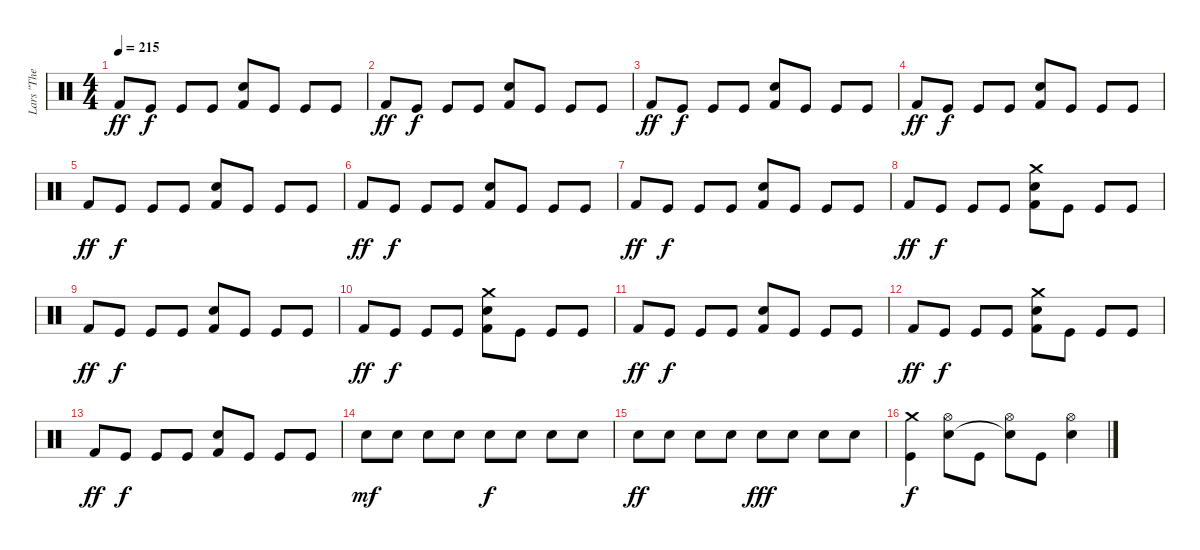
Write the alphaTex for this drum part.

\track ("Lars \"The Antichrist\" Ulrich" "Lars \"The ") {instrument percussion}
\staff {score}
\articulation defaults
\ts (4 4)
\tempo 215
\clef neutral
\ks c "Kick (hit) 2".8{dy ff} "Kick (hit)".8{dy f} "Kick (hit)".8 "Kick (hit)".8
("Electric Snare (hit)" "Kick (hit) 2").8 "Kick (hit)".8 "Kick (hit)".8 "Kick (hit)".8 |
"Kick (hit) 2".8{dy ff} "Kick (hit)".8{dy f} "Kick (hit)".8 "Kick (hit)".8 ("Electric Snare (hit)" "Kick (hit) 2").8 "Kick (hit)".8 "Kick (hit)".8 "Kick (hit)".8 |
"Kick (hit) 2".8{dy ff} "Kick (hit)".8{dy f} "Kick (hit)".8 "Kick (hit)".8 ("Electric Snare (hit)" "Kick (hit) 2").8 "Kick (hit)".8 "Kick (hit)".8 "Kick (hit)".8 |
"Kick (hit) 2".8{dy ff} "Kick (hit)".8{dy f} "Kick (hit)".8 "Kick (hit)".8 ("Electric Snare (hit)" "Kick (hit) 2").8 "Kick (hit)".8 "Kick (hit)".8 "Kick (hit)".8 |
"Kick (hit) 2".8{dy ff} "Kick (hit)".8{dy f} "Kick (hit)".8 "Kick (hit)".8 ("Electric Snare (hit)" "Kick (hit) 2").8 "Kick (hit)".8 "Kick (hit)".8 "Kick (hit)".8 |
"Kick (hit) 2".8{dy ff} "Kick (hit)".8{dy f} "Kick (hit)".8 "Kick (hit)".8 ("Electric Snare (hit)" "Kick (hit) 2").8 "Kick (hit)".8 "Kick (hit)".8 "Kick (hit)".8 |
"Kick (hit) 2".8{dy ff} "Kick (hit)".8{dy f} "Kick (hit)".8 "Kick (hit)".8 ("Electric Snare (hit)" "Kick (hit) 2").8 "Kick (hit)".8 "Kick (hit)".8 "Kick (hit)".8 |
"Kick (hit) 2".8{dy ff} "Kick (hit)".8{dy f} "Kick (hit)".8 "Kick (hit)".8 ("Crash medium (hit)" "Electric Snare (hit)" "Kick (hit) 2").8 "Kick (hit)".8 "Kick (hit)".8 "Kick (hit)".8 |
"Kick (hit) 2".8{dy ff} "Kick (hit)".8{dy f} "Kick (hit)".8 "Kick (hit)".8 ("Electric Snare (hit)" "Kick (hit) 2").8 "Kick (hit)".8 "Kick (hit)".8 "Kick (hit)".8 |
"Kick (hit) 2".8{dy ff} "Kick (hit)".8{dy f} "Kick (hit)".8 "Kick (hit)".8 ("Crash medium (hit)" "Electric Snare (hit)" "Kick (hit) 2").8 "Kick (hit)".8 "Kick (hit)".8 "Kick (hit)".8 |
"Kick (hit) 2".8{dy ff} "Kick (hit)".8{dy f} "Kick (hit)".8 "Kick (hit)".8 ("Electric Snare (hit)" "Kick (hit) 2").8 "Kick (hit)".8 "Kick (hit)".8 "Kick (hit)".8 |
"Kick (hit) 2".8{dy ff} "Kick (hit)".8{dy f} "Kick (hit)".8 "Kick (hit)".8 ("Crash medium (hit)" "Electric Snare (hit)" "Kick (hit) 2").8 "Kick (hit)".8 "Kick (hit)".8 "Kick (hit)".8 |
"Kick (hit) 2".8{dy ff} "Kick (hit)".8{dy f} "Kick (hit)".8 "Kick (hit)".8 ("Electric Snare (hit)" "Kick (hit) 2").8 "Kick (hit)".8 "Kick (hit)".8 "Kick (hit)".8 |
"Electric Snare (hit)".8{dy mf} "Electric Snare (hit)".8 "Electric Snare (hit)".8 "Electric Snare (hit)".8 "Electric Snare (hit)".8{dy f} "Electric Snare (hit)".8 "Electric Snare (hit)".8 "Electric Snare (hit)".8 |
"Electric Snare (hit)".8{dy ff} "Electric Snare (hit)".8 "Electric Snare (hit)".8 "Electric Snare (hit)".8 "Electric Snare (hit)".8{dy fff} "Electric Snare (hit)".8 "Electric Snare (hit)".8 "Electric Snare (hit)".8 |
("Crash medium (hit)" "Kick (hit)").4{dy f} ("Hi-Hat (open)" "Electric Snare (hit)").8 "Kick (hit)".8 ("Hi-Hat (open)" "Snare (hit)"{t}).8 "Kick (hit)".8 ("Hi-Hat (open)" "Electric Snare (hit)").4
